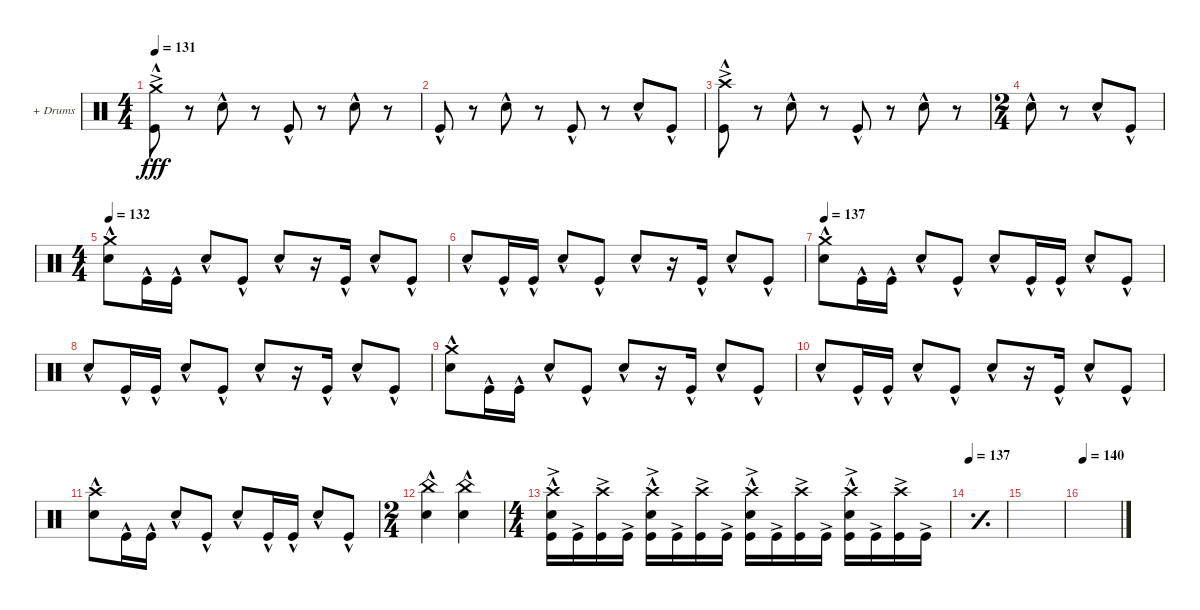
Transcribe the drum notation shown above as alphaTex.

\defaultSystemsLayout 4
\bracketExtendMode groupsimilarinstruments
\firstSystemTrackNameOrientation horizontal
\otherSystemsTrackNameOrientation horizontal
\track ("+ Drums" "+ Drums") {instrument percussion}
\staff {score}
\articulation defaults
\ts (4 4)
\tempo 131
\clef neutral
\ks c
("Crash medium (hit)"{ac} "Kick (hit)"{hac}).8{dy fff} r.8 "Snare (hit) 2"{hac}.8 r.8 "Kick (hit)"{hac}.8 r.8 "Snare (hit) 2"{hac}.8 r.8 |
"Kick (hit)"{hac}.8 r.8 "Snare (hit) 2"{hac}.8 r.8 "Kick (hit)"{hac}.8 r.8 "Snare (hit) 2"{hac}.8 "Kick (hit)"{hac}.8 |
("Crash high (hit)"{ac} "Kick (hit)"{hac}).8 r.8 "Snare (hit) 2"{hac}.8 r.8 "Kick (hit)"{hac}.8 r.8 "Snare (hit) 2"{hac}.8 r.8 |
\ts (2 4)
"Snare (hit) 2"{hac}.8 r.8 "Snare (hit) 2"{hac}.8 "Kick (hit)"{hac}.8 |
\ts (4 4)
\tempo 132
("Crash medium (hit)"{hac} "Snare (hit) 2"{hac}).8 "Kick (hit)"{hac}.16 "Kick (hit)"{hac}.16 "Snare (hit) 2"{hac}.8 "Kick (hit)"{hac}.8 "Snare (hit) 2"{hac}.8 r.16 "Kick (hit)"{hac}.16 "Snare (hit) 2"{hac}.8 "Kick (hit)"{hac}.8 |
"Snare (hit) 2"{hac}.8 "Kick (hit)"{hac}.16 "Kick (hit)"{hac}.16 "Snare (hit) 2"{hac}.8 "Kick (hit)"{hac}.8 "Snare (hit) 2"{hac}.8 r.16 "Kick (hit)"{hac}.16 "Snare (hit) 2"{hac}.8 "Kick (hit)"{hac}.8 |
\tempo 137
("Crash medium (hit)"{hac} "Snare (hit) 2"{hac}).8 "Kick (hit)"{hac}.16 "Kick (hit)"{hac}.16 "Snare (hit) 2"{hac}.8 "Kick (hit)"{hac}.8 "Snare (hit) 2"{hac}.8 "Kick (hit)"{hac}.16 "Kick (hit)"{hac}.16 "Snare (hit) 2"{hac}.8 "Kick (hit)"{hac}.8 |
"Snare (hit) 2"{hac}.8 "Kick (hit)"{hac}.16 "Kick (hit)"{hac}.16 "Snare (hit) 2"{hac}.8 "Kick (hit)"{hac}.8 "Snare (hit) 2"{hac}.8 r.16 "Kick (hit)"{hac}.16 "Snare (hit) 2"{hac}.8 "Kick (hit)"{hac}.8 |
("Crash medium (hit)"{hac} "Snare (hit) 2"{hac}).8 "Kick (hit)"{hac}.16 "Kick (hit)"{hac}.16 "Snare (hit) 2"{hac}.8 "Kick (hit)"{hac}.8 "Snare (hit) 2"{hac}.8 r.16 "Kick (hit)"{hac}.16 "Snare (hit) 2"{hac}.8 "Kick (hit)"{hac}.8 |
"Snare (hit) 2"{hac}.8 "Kick (hit)"{hac}.16 "Kick (hit)"{hac}.16 "Snare (hit) 2"{hac}.8 "Kick (hit)"{hac}.8 "Snare (hit) 2"{hac}.8 r.16 "Kick (hit)"{hac}.16 "Snare (hit) 2"{hac}.8 "Kick (hit)"{hac}.8 |
("Crash high (hit)"{hac} "Snare (hit) 2"{hac}).8 "Kick (hit)"{hac}.16 "Kick (hit)"{hac}.16 "Snare (hit) 2"{hac}.8 "Kick (hit)"{hac}.8 "Snare (hit) 2"{hac}.8 "Kick (hit)"{hac}.16 "Kick (hit)"{hac}.16 "Snare (hit) 2"{hac}.8 "Kick (hit)"{hac}.8 |
\ts (2 4)
("Snare (hit) 2"{hac} "China (hit)"{hac}).4 ("Snare (hit) 2"{hac} "China (hit)"{hac}).4 |
\ts (4 4)
("Crash high (hit)" "Snare (hit) 2"{hac} "Kick (hit)"{ac}).16 "Kick (hit)"{ac}.16 ("Crash high (hit)" "Kick (hit)"{ac}).16 "Kick (hit)"{ac}.16 ("Crash high (hit)" "Snare (hit) 2"{hac} "Kick (hit)"{ac}).16 "Kick (hit)"{ac}.16 ("Crash high (hit)" "Kick (hit)"{ac}).16 "Kick (hit)"{ac}.16 ("Crash high (hit)" "Snare (hit) 2"{hac} "Kick (hit)"{ac}).16 "Kick (hit)"{ac}.16 ("Crash high (hit)" "Kick (hit)"{ac}).16 "Kick (hit)"{ac}.16 ("Crash high (hit)" "Snare (hit) 2"{hac} "Kick (hit)"{ac}).16 "Kick (hit)"{ac}.16 ("Crash high (hit)" "Kick (hit)"{ac}).16 "Kick (hit)"{ac}.16 |
\tempo 137
\simile simple
|
|
\tempo 140
